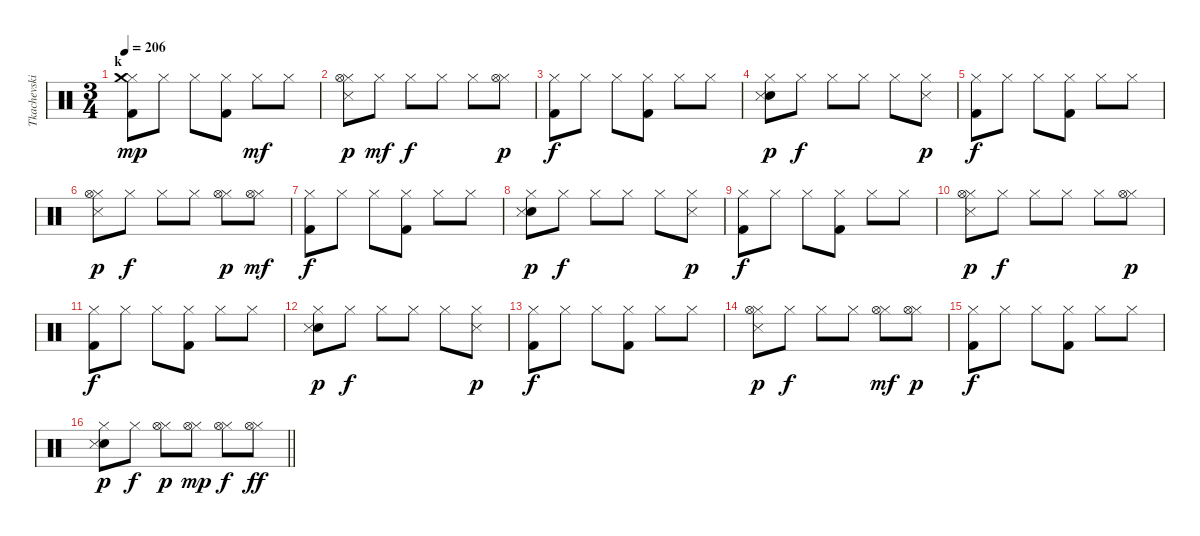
\track ("Tkachevskiy A" "Tkachevski") {instrument percussion}
\staff {score}
\articulation defaults
\ts (3 4)
\section ("" "k")
\tempo 206
\clef neutral
\ks c
("Hi-Hat (closed)" "Crash medium (hit)" "Kick (hit) 2").8{dy mp} "Hi-Hat (closed)".8 "Hi-Hat (closed)".8 ("Hi-Hat (closed)" "Kick (hit) 2").8 "Hi-Hat (closed)".8{dy mf} "Hi-Hat (closed)".8 |
("Hi-Hat (closed)" "Hi-Hat (open)" "Snare (side stick) 3").8{dy p} "Hi-Hat (closed)".8{dy mf} "Hi-Hat (closed)".8{dy f} "Hi-Hat (closed)".8 "Hi-Hat (closed)".8 ("Hi-Hat (closed)" "Hi-Hat (open)").8{dy p} |
("Hi-Hat (closed)" "Kick (hit) 2").8{dy f} "Hi-Hat (closed)".8 "Hi-Hat (closed)".8 ("Hi-Hat (closed)" "Kick (hit) 2").8 "Hi-Hat (closed)".8 "Hi-Hat (closed)".8 |
("Hi-Hat (closed)" "Snare (hit) 2" "Snare (side stick) 3").8{dy p} "Hi-Hat (closed)".8{dy f} "Hi-Hat (closed)".8 "Hi-Hat (closed)".8 "Hi-Hat (closed)".8 ("Hi-Hat (closed)" "Snare (side stick) 3").8{dy p} |
("Hi-Hat (closed)" "Kick (hit) 2").8{dy f} "Hi-Hat (closed)".8 "Hi-Hat (closed)".8 ("Hi-Hat (closed)" "Kick (hit) 2").8 "Hi-Hat (closed)".8 "Hi-Hat (closed)".8 |
("Hi-Hat (closed)" "Hi-Hat (open)" "Snare (side stick) 3").8{dy p} "Hi-Hat (closed)".8{dy f} "Hi-Hat (closed)".8 "Hi-Hat (closed)".8 ("Hi-Hat (closed)" "Hi-Hat (open)").8{dy p} ("Hi-Hat (closed)" "Hi-Hat (open)").8{dy mf} |
("Hi-Hat (closed)" "Kick (hit) 2").8{dy f} "Hi-Hat (closed)".8 "Hi-Hat (closed)".8 ("Hi-Hat (closed)" "Kick (hit) 2").8 "Hi-Hat (closed)".8 "Hi-Hat (closed)".8 |
("Hi-Hat (closed)" "Snare (hit) 2" "Snare (side stick) 3").8{dy p} "Hi-Hat (closed)".8{dy f} "Hi-Hat (closed)".8 "Hi-Hat (closed)".8 "Hi-Hat (closed)".8 ("Hi-Hat (closed)" "Snare (side stick) 3").8{dy p} |
("Hi-Hat (closed)" "Kick (hit) 2").8{dy f} "Hi-Hat (closed)".8 "Hi-Hat (closed)".8 ("Hi-Hat (closed)" "Kick (hit) 2").8 "Hi-Hat (closed)".8 "Hi-Hat (closed)".8 |
("Hi-Hat (closed)" "Hi-Hat (open)" "Snare (side stick) 3").8{dy p} "Hi-Hat (closed)".8{dy f} "Hi-Hat (closed)".8 "Hi-Hat (closed)".8 "Hi-Hat (closed)".8 ("Hi-Hat (closed)" "Hi-Hat (open)").8{dy p} |
("Hi-Hat (closed)" "Kick (hit) 2").8{dy f} "Hi-Hat (closed)".8 "Hi-Hat (closed)".8 ("Hi-Hat (closed)" "Kick (hit) 2").8 "Hi-Hat (closed)".8 "Hi-Hat (closed)".8 |
("Hi-Hat (closed)" "Snare (hit) 2" "Snare (side stick) 3").8{dy p} "Hi-Hat (closed)".8{dy f} "Hi-Hat (closed)".8 "Hi-Hat (closed)".8 "Hi-Hat (closed)".8 ("Hi-Hat (closed)" "Snare (side stick) 3").8{dy p} |
("Hi-Hat (closed)" "Kick (hit) 2").8{dy f} "Hi-Hat (closed)".8 "Hi-Hat (closed)".8 ("Hi-Hat (closed)" "Kick (hit) 2").8 "Hi-Hat (closed)".8 "Hi-Hat (closed)".8 |
("Hi-Hat (closed)" "Hi-Hat (open)" "Snare (side stick) 3").8{dy p} "Hi-Hat (closed)".8{dy f} "Hi-Hat (closed)".8 "Hi-Hat (closed)".8 ("Hi-Hat (closed)" "Hi-Hat (open)").8{dy mf} ("Hi-Hat (closed)" "Hi-Hat (open)").8{dy p} |
("Hi-Hat (closed)" "Kick (hit) 2").8{dy f} "Hi-Hat (closed)".8 "Hi-Hat (closed)".8 ("Hi-Hat (closed)" "Kick (hit) 2").8 "Hi-Hat (closed)".8 "Hi-Hat (closed)".8 |
\barLineRight lightlight
("Hi-Hat (closed)" "Snare (hit) 2" "Snare (side stick) 3").8{dy p} "Hi-Hat (closed)".8{dy f} ("Hi-Hat (closed)" "Hi-Hat (open)").8{dy p} ("Hi-Hat (closed)" "Hi-Hat (open)").8{dy mp} ("Hi-Hat (closed)" "Hi-Hat (open)").8{dy f} ("Hi-Hat (closed)" "Hi-Hat (open)").8{dy ff}
